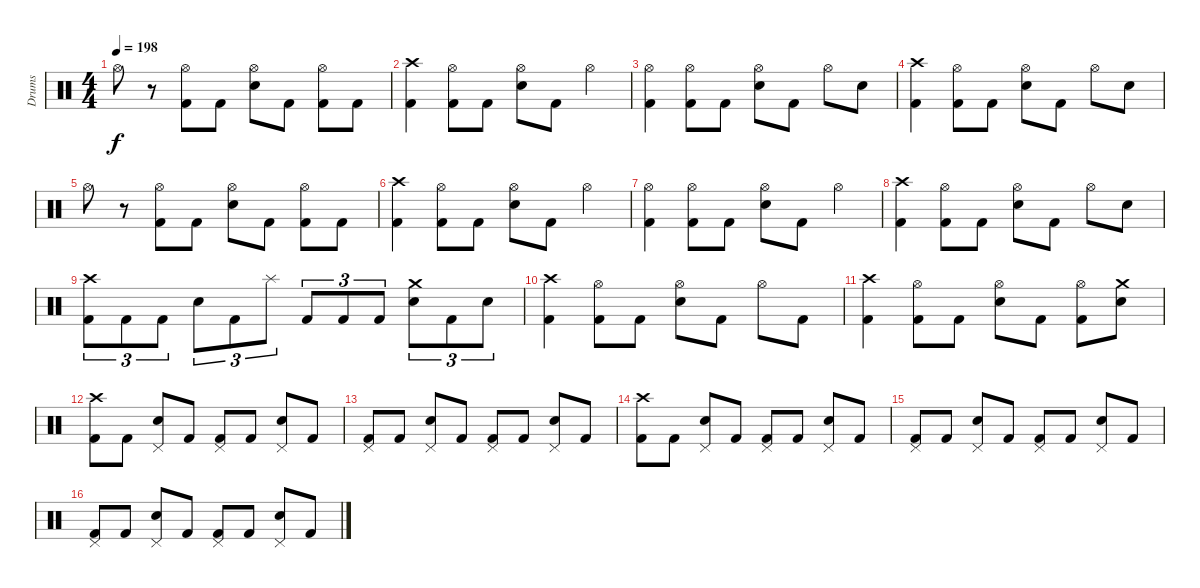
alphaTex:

\track ("Drums" "Drums") {instrument percussion}
\staff {score}
\articulation defaults
\ts (4 4)
\tempo 198
\clef neutral
\ks c "Hi-Hat (open)".8{dy f}
r.8 ("Hi-Hat (open)" "Kick (hit) 2").8 "Kick (hit) 2".8 ("Hi-Hat (open)" "Electric Snare (hit)").8 "Kick (hit) 2".8 ("Hi-Hat (open)" "Kick (hit) 2").8 "Kick (hit) 2".8 |
("Crash high (hit)" "Kick (hit) 2").4 ("Hi-Hat (open)" "Kick (hit) 2").8 "Kick (hit) 2".8 ("Hi-Hat (open)" "Electric Snare (hit)").8 "Kick (hit) 2".8 "Hi-Hat (open)".4 |
("Hi-Hat (open)" "Kick (hit) 2").4 ("Hi-Hat (open)" "Kick (hit) 2").8 "Kick (hit) 2".8 ("Hi-Hat (open)" "Electric Snare (hit)").8 "Kick (hit) 2".8 "Hi-Hat (open)".8 "Electric Snare (hit)".8 |
("Crash high (hit)" "Kick (hit) 2").4 ("Hi-Hat (open)" "Kick (hit) 2").8 "Kick (hit) 2".8 ("Hi-Hat (open)" "Electric Snare (hit)").8 "Kick (hit) 2".8 "Hi-Hat (open)".8 "Electric Snare (hit)".8 |
"Hi-Hat (open)".8 r.8 ("Hi-Hat (open)" "Kick (hit) 2").8 "Kick (hit) 2".8 ("Hi-Hat (open)" "Electric Snare (hit)").8 "Kick (hit) 2".8 ("Hi-Hat (open)" "Kick (hit) 2").8 "Kick (hit) 2".8 |
("Crash high (hit)" "Kick (hit) 2").4 ("Hi-Hat (open)" "Kick (hit) 2").8 "Kick (hit) 2".8 ("Hi-Hat (open)" "Electric Snare (hit)").8 "Kick (hit) 2".8 "Hi-Hat (open)".4 |
("Hi-Hat (open)" "Kick (hit) 2").4 ("Hi-Hat (open)" "Kick (hit) 2").8 "Kick (hit) 2".8 ("Hi-Hat (open)" "Electric Snare (hit)").8 "Kick (hit) 2".8 "Hi-Hat (open)".4 |
("Crash high (hit)" "Kick (hit) 2").4 ("Hi-Hat (open)" "Kick (hit) 2").8 "Kick (hit) 2".8 ("Hi-Hat (open)" "Electric Snare (hit)").8 "Kick (hit) 2".8 "Hi-Hat (open)".8 "Electric Snare (hit)".8 |
("Crash high (hit)" "Kick (hit) 2").8{tu (3 2)} "Kick (hit) 2".8{tu (3 2)} "Kick (hit) 2".8{tu (3 2)} "Electric Snare (hit)".8{tu (3 2)} "Kick (hit) 2".8{tu (3 2)} "Splash (hit)".8{tu (3 2)} "Kick (hit) 2".8{tu (3 2)} "Kick (hit) 2".8{tu (3 2)} "Kick (hit) 2".8{tu (3 2)} ("Crash medium (hit)" "Electric Snare (hit)").8{tu (3 2)} "Kick (hit) 2".8{tu (3 2)} "Electric Snare (hit)".8{tu (3 2)} |
("Crash high (hit)" "Kick (hit) 2").4 ("Hi-Hat (open)" "Kick (hit) 2").8 "Kick (hit) 2".8 ("Hi-Hat (open)" "Electric Snare (hit)").8 "Kick (hit) 2".8 "Hi-Hat (open)".8 "Kick (hit) 2".8 |
("Crash high (hit)" "Kick (hit) 2").4 ("Hi-Hat (open)" "Kick (hit) 2").8 "Kick (hit) 2".8 ("Hi-Hat (open)" "Electric Snare (hit)").8 "Kick (hit) 2".8 ("Hi-Hat (open)" "Kick (hit) 2").8 ("Crash medium (hit)" "Electric Snare (hit)").8 |
("Crash high (hit)" "Kick (hit) 2").8 "Kick (hit) 2".8 ("Pedal Hi-Hat (hit)" "Electric Snare (hit)").8 "Kick (hit) 2".8 ("Pedal Hi-Hat (hit)" "Kick (hit) 2").8 "Kick (hit) 2".8 ("Pedal Hi-Hat (hit)" "Electric Snare (hit)").8 "Kick (hit) 2".8 |
("Pedal Hi-Hat (hit)" "Kick (hit) 2").8 "Kick (hit) 2".8 ("Pedal Hi-Hat (hit)" "Electric Snare (hit)").8 "Kick (hit) 2".8 ("Pedal Hi-Hat (hit)" "Kick (hit) 2").8 "Kick (hit) 2".8 ("Pedal Hi-Hat (hit)" "Electric Snare (hit)").8 "Kick (hit) 2".8 |
("Crash high (hit)" "Kick (hit) 2").8 "Kick (hit) 2".8 ("Pedal Hi-Hat (hit)" "Electric Snare (hit)").8 "Kick (hit) 2".8 ("Pedal Hi-Hat (hit)" "Kick (hit) 2").8 "Kick (hit) 2".8 ("Pedal Hi-Hat (hit)" "Electric Snare (hit)").8 "Kick (hit) 2".8 |
("Pedal Hi-Hat (hit)" "Kick (hit) 2").8 "Kick (hit) 2".8 ("Pedal Hi-Hat (hit)" "Electric Snare (hit)").8 "Kick (hit) 2".8 ("Pedal Hi-Hat (hit)" "Kick (hit) 2").8 "Kick (hit) 2".8 ("Pedal Hi-Hat (hit)" "Electric Snare (hit)").8 "Kick (hit) 2".8 |
("Pedal Hi-Hat (hit)" "Kick (hit) 2").8 "Kick (hit) 2".8 ("Pedal Hi-Hat (hit)" "Electric Snare (hit)").8 "Kick (hit) 2".8 ("Pedal Hi-Hat (hit)" "Kick (hit) 2").8 "Kick (hit) 2".8 ("Pedal Hi-Hat (hit)" "Electric Snare (hit)").8 "Kick (hit) 2".8
